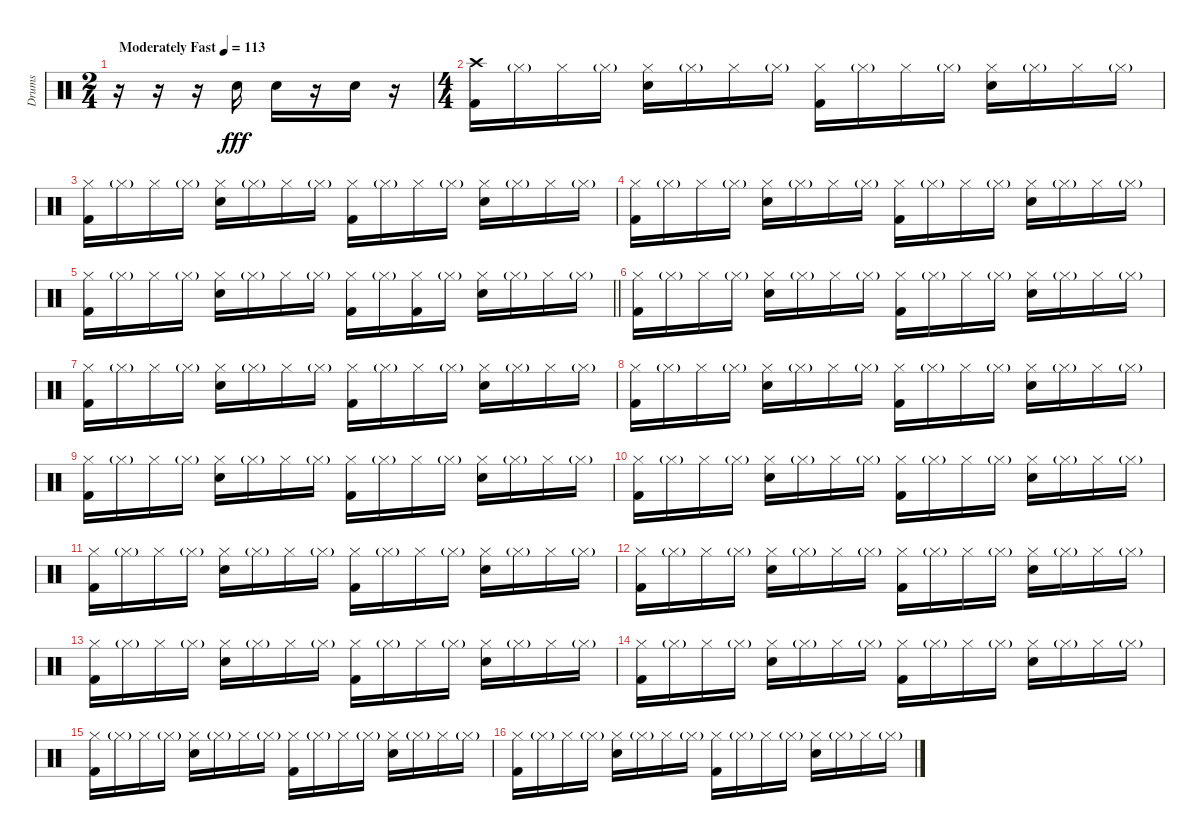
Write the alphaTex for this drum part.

\track ("Drums" "Drums") {instrument percussion}
\staff {score}
\articulation defaults
\ts (2 4)
\tempo (113 "Moderately Fast")
\clef neutral
\ks c
r.16{dy fff} r.16 r.16 "Electric Snare (hit)".16 "Electric Snare (hit)".16 r.16 "Electric Snare (hit)".16 r.16 |
\ts (4 4)
("Crash high (hit)" "Kick (hit) 2").16 "Hi-Hat (closed)"{g}.16 "Hi-Hat (closed)".16 "Hi-Hat (closed)"{g}.16 ("Hi-Hat (closed)" "Electric Snare (hit)").16 "Hi-Hat (closed)"{g}.16 "Hi-Hat (closed)".16 "Hi-Hat (closed)"{g}.16 ("Hi-Hat (closed)" "Kick (hit) 2").16 "Hi-Hat (closed)"{g}.16 "Hi-Hat (closed)".16 "Hi-Hat (closed)"{g}.16 ("Hi-Hat (closed)" "Electric Snare (hit)").16 "Hi-Hat (closed)"{g}.16 "Hi-Hat (closed)".16 "Hi-Hat (closed)"{g}.16 |
("Hi-Hat (closed)" "Kick (hit) 2").16 "Hi-Hat (closed)"{g}.16 "Hi-Hat (closed)".16 "Hi-Hat (closed)"{g}.16 ("Hi-Hat (closed)" "Electric Snare (hit)").16 "Hi-Hat (closed)"{g}.16 "Hi-Hat (closed)".16 "Hi-Hat (closed)"{g}.16 ("Hi-Hat (closed)" "Kick (hit) 2").16 "Hi-Hat (closed)"{g}.16 "Hi-Hat (closed)".16 "Hi-Hat (closed)"{g}.16 ("Hi-Hat (closed)" "Electric Snare (hit)").16 "Hi-Hat (closed)"{g}.16 "Hi-Hat (closed)".16 "Hi-Hat (closed)"{g}.16 |
("Hi-Hat (closed)" "Kick (hit) 2").16 "Hi-Hat (closed)"{g}.16 "Hi-Hat (closed)".16 "Hi-Hat (closed)"{g}.16 ("Hi-Hat (closed)" "Electric Snare (hit)").16 "Hi-Hat (closed)"{g}.16 "Hi-Hat (closed)".16 "Hi-Hat (closed)"{g}.16 ("Hi-Hat (closed)" "Kick (hit) 2").16 "Hi-Hat (closed)"{g}.16 "Hi-Hat (closed)".16 "Hi-Hat (closed)"{g}.16 ("Hi-Hat (closed)" "Electric Snare (hit)").16 "Hi-Hat (closed)"{g}.16 "Hi-Hat (closed)".16 "Hi-Hat (closed)"{g}.16 |
\barLineRight lightlight
("Hi-Hat (closed)" "Kick (hit) 2").16 "Hi-Hat (closed)"{g}.16 "Hi-Hat (closed)".16 "Hi-Hat (closed)"{g}.16 ("Hi-Hat (closed)" "Electric Snare (hit)").16 "Hi-Hat (closed)"{g}.16 "Hi-Hat (closed)".16 "Hi-Hat (closed)"{g}.16 ("Hi-Hat (closed)" "Kick (hit) 2").16 "Hi-Hat (closed)"{g}.16 ("Hi-Hat (closed)" "Kick (hit) 2").16 "Hi-Hat (closed)"{g}.16 ("Hi-Hat (closed)" "Electric Snare (hit)").16 "Hi-Hat (closed)"{g}.16 "Hi-Hat (closed)".16 "Hi-Hat (closed)"{g}.16 |
("Hi-Hat (closed)" "Kick (hit) 2").16 "Hi-Hat (closed)"{g}.16 "Hi-Hat (closed)".16 "Hi-Hat (closed)"{g}.16 ("Hi-Hat (closed)" "Electric Snare (hit)").16 "Hi-Hat (closed)"{g}.16 "Hi-Hat (closed)".16 "Hi-Hat (closed)"{g}.16 ("Hi-Hat (closed)" "Kick (hit) 2").16 "Hi-Hat (closed)"{g}.16 "Hi-Hat (closed)".16 "Hi-Hat (closed)"{g}.16 ("Hi-Hat (closed)" "Electric Snare (hit)").16 "Hi-Hat (closed)"{g}.16 "Hi-Hat (closed)".16 "Hi-Hat (closed)"{g}.16 |
("Hi-Hat (closed)" "Kick (hit) 2").16 "Hi-Hat (closed)"{g}.16 "Hi-Hat (closed)".16 "Hi-Hat (closed)"{g}.16 ("Hi-Hat (closed)" "Electric Snare (hit)").16 "Hi-Hat (closed)"{g}.16 "Hi-Hat (closed)".16 "Hi-Hat (closed)"{g}.16 ("Hi-Hat (closed)" "Kick (hit) 2").16 "Hi-Hat (closed)"{g}.16 "Hi-Hat (closed)".16 "Hi-Hat (closed)"{g}.16 ("Hi-Hat (closed)" "Electric Snare (hit)").16 "Hi-Hat (closed)"{g}.16 "Hi-Hat (closed)".16 "Hi-Hat (closed)"{g}.16 |
("Hi-Hat (closed)" "Kick (hit) 2").16 "Hi-Hat (closed)"{g}.16 "Hi-Hat (closed)".16 "Hi-Hat (closed)"{g}.16 ("Hi-Hat (closed)" "Electric Snare (hit)").16 "Hi-Hat (closed)"{g}.16 "Hi-Hat (closed)".16 "Hi-Hat (closed)"{g}.16 ("Hi-Hat (closed)" "Kick (hit) 2").16 "Hi-Hat (closed)"{g}.16 "Hi-Hat (closed)".16 "Hi-Hat (closed)"{g}.16 ("Hi-Hat (closed)" "Electric Snare (hit)").16 "Hi-Hat (closed)"{g}.16 "Hi-Hat (closed)".16 "Hi-Hat (closed)"{g}.16 |
("Hi-Hat (closed)" "Kick (hit) 2").16 "Hi-Hat (closed)"{g}.16 "Hi-Hat (closed)".16 "Hi-Hat (closed)"{g}.16 ("Hi-Hat (closed)" "Electric Snare (hit)").16 "Hi-Hat (closed)"{g}.16 "Hi-Hat (closed)".16 "Hi-Hat (closed)"{g}.16 ("Hi-Hat (closed)" "Kick (hit) 2").16 "Hi-Hat (closed)"{g}.16 "Hi-Hat (closed)".16 "Hi-Hat (closed)"{g}.16 ("Hi-Hat (closed)" "Electric Snare (hit)").16 "Hi-Hat (closed)"{g}.16 "Hi-Hat (closed)".16 "Hi-Hat (closed)"{g}.16 |
("Hi-Hat (closed)" "Kick (hit) 2").16 "Hi-Hat (closed)"{g}.16 "Hi-Hat (closed)".16 "Hi-Hat (closed)"{g}.16 ("Hi-Hat (closed)" "Electric Snare (hit)").16 "Hi-Hat (closed)"{g}.16 "Hi-Hat (closed)".16 "Hi-Hat (closed)"{g}.16 ("Hi-Hat (closed)" "Kick (hit) 2").16 "Hi-Hat (closed)"{g}.16 "Hi-Hat (closed)".16 "Hi-Hat (closed)"{g}.16 ("Hi-Hat (closed)" "Electric Snare (hit)").16 "Hi-Hat (closed)"{g}.16 "Hi-Hat (closed)".16 "Hi-Hat (closed)"{g}.16 |
("Hi-Hat (closed)" "Kick (hit) 2").16 "Hi-Hat (closed)"{g}.16 "Hi-Hat (closed)".16 "Hi-Hat (closed)"{g}.16 ("Hi-Hat (closed)" "Electric Snare (hit)").16 "Hi-Hat (closed)"{g}.16 "Hi-Hat (closed)".16 "Hi-Hat (closed)"{g}.16 ("Hi-Hat (closed)" "Kick (hit) 2").16 "Hi-Hat (closed)"{g}.16 "Hi-Hat (closed)".16 "Hi-Hat (closed)"{g}.16 ("Hi-Hat (closed)" "Electric Snare (hit)").16 "Hi-Hat (closed)"{g}.16 "Hi-Hat (closed)".16 "Hi-Hat (closed)"{g}.16 |
("Hi-Hat (closed)" "Kick (hit) 2").16 "Hi-Hat (closed)"{g}.16 "Hi-Hat (closed)".16 "Hi-Hat (closed)"{g}.16 ("Hi-Hat (closed)" "Electric Snare (hit)").16 "Hi-Hat (closed)"{g}.16 "Hi-Hat (closed)".16 "Hi-Hat (closed)"{g}.16 ("Hi-Hat (closed)" "Kick (hit) 2").16 "Hi-Hat (closed)"{g}.16 "Hi-Hat (closed)".16 "Hi-Hat (closed)"{g}.16 ("Hi-Hat (closed)" "Electric Snare (hit)").16 "Hi-Hat (closed)"{g}.16 "Hi-Hat (closed)".16 "Hi-Hat (closed)"{g}.16 |
("Hi-Hat (closed)" "Kick (hit) 2").16 "Hi-Hat (closed)"{g}.16 "Hi-Hat (closed)".16 "Hi-Hat (closed)"{g}.16 ("Hi-Hat (closed)" "Electric Snare (hit)").16 "Hi-Hat (closed)"{g}.16 "Hi-Hat (closed)".16 "Hi-Hat (closed)"{g}.16 ("Hi-Hat (closed)" "Kick (hit) 2").16 "Hi-Hat (closed)"{g}.16 "Hi-Hat (closed)".16 "Hi-Hat (closed)"{g}.16 ("Hi-Hat (closed)" "Electric Snare (hit)").16 "Hi-Hat (closed)"{g}.16 "Hi-Hat (closed)".16 "Hi-Hat (closed)"{g}.16 |
("Hi-Hat (closed)" "Kick (hit) 2").16 "Hi-Hat (closed)"{g}.16 "Hi-Hat (closed)".16 "Hi-Hat (closed)"{g}.16 ("Hi-Hat (closed)" "Electric Snare (hit)").16 "Hi-Hat (closed)"{g}.16 "Hi-Hat (closed)".16 "Hi-Hat (closed)"{g}.16 ("Hi-Hat (closed)" "Kick (hit) 2").16 "Hi-Hat (closed)"{g}.16 "Hi-Hat (closed)".16 "Hi-Hat (closed)"{g}.16 ("Hi-Hat (closed)" "Electric Snare (hit)").16 "Hi-Hat (closed)"{g}.16 "Hi-Hat (closed)".16 "Hi-Hat (closed)"{g}.16 |
("Hi-Hat (closed)" "Kick (hit) 2").16 "Hi-Hat (closed)"{g}.16 "Hi-Hat (closed)".16 "Hi-Hat (closed)"{g}.16 ("Hi-Hat (closed)" "Electric Snare (hit)").16 "Hi-Hat (closed)"{g}.16 "Hi-Hat (closed)".16 "Hi-Hat (closed)"{g}.16 ("Hi-Hat (closed)" "Kick (hit) 2").16 "Hi-Hat (closed)"{g}.16 "Hi-Hat (closed)".16 "Hi-Hat (closed)"{g}.16 ("Hi-Hat (closed)" "Electric Snare (hit)").16 "Hi-Hat (closed)"{g}.16 "Hi-Hat (closed)".16 "Hi-Hat (closed)"{g}.16 |
("Hi-Hat (closed)" "Kick (hit) 2").16 "Hi-Hat (closed)"{g}.16 "Hi-Hat (closed)".16 "Hi-Hat (closed)"{g}.16 ("Hi-Hat (closed)" "Electric Snare (hit)").16 "Hi-Hat (closed)"{g}.16 "Hi-Hat (closed)".16 "Hi-Hat (closed)"{g}.16 ("Hi-Hat (closed)" "Kick (hit) 2").16 "Hi-Hat (closed)"{g}.16 "Hi-Hat (closed)".16 "Hi-Hat (closed)"{g}.16 ("Hi-Hat (closed)" "Electric Snare (hit)").16 "Hi-Hat (closed)"{g}.16 "Hi-Hat (closed)".16 "Hi-Hat (closed)"{g}.16
